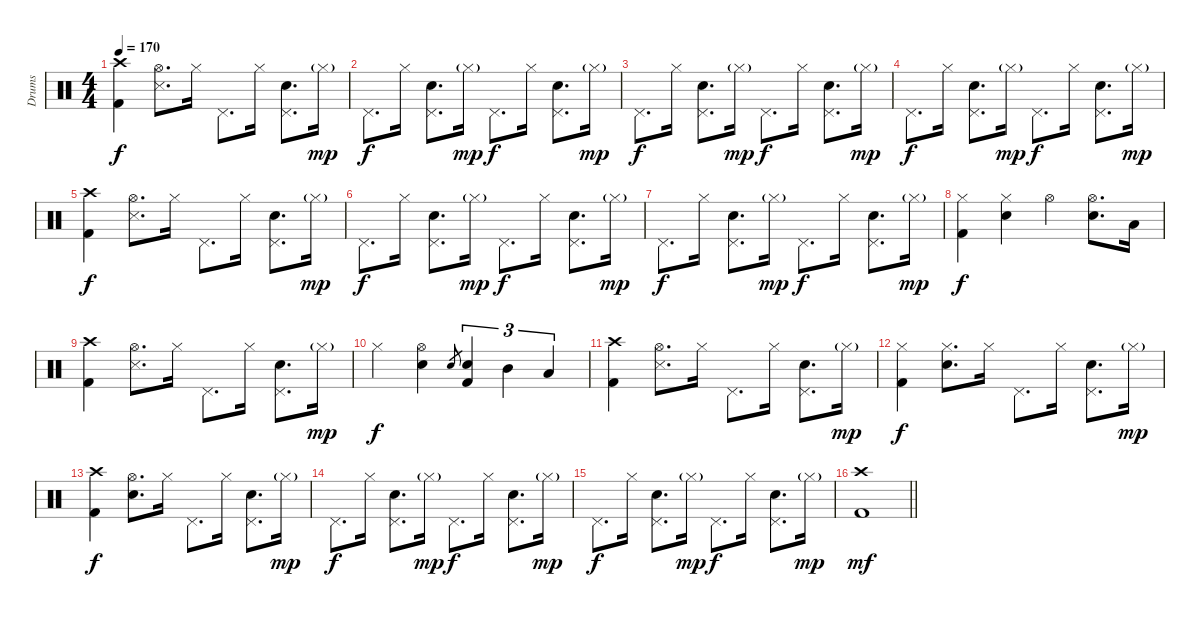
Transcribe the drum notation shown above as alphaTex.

\track ("Drums" "Drums") {instrument percussion}
\staff {score}
\articulation defaults
\ts (4 4)
\tempo 170
\clef neutral
\ks c
("Crash high (hit)" "Kick (hit) 2").4{dy f} ("Hi-Hat (open)" "Snare (side stick) 3").8{d} "Hi-Hat (closed)".16 "Pedal Hi-Hat (hit)".8{d} "Hi-Hat (closed)".16 ("Pedal Hi-Hat (hit)" "Snare (hit) 2").8{d} "Hi-Hat (closed)"{g}.16{dy mp} |
"Pedal Hi-Hat (hit)".8{d dy f} "Hi-Hat (closed)".16 ("Pedal Hi-Hat (hit)" "Snare (hit) 2").8{d} "Hi-Hat (closed)"{g}.16{dy mp} "Pedal Hi-Hat (hit)".8{d dy f} "Hi-Hat (closed)".16 ("Pedal Hi-Hat (hit)" "Snare (hit) 2").8{d} "Hi-Hat (closed)"{g}.16{dy mp} |
"Pedal Hi-Hat (hit)".8{d dy f} "Hi-Hat (closed)".16 ("Pedal Hi-Hat (hit)" "Snare (hit) 2").8{d} "Hi-Hat (closed)"{g}.16{dy mp} "Pedal Hi-Hat (hit)".8{d dy f} "Hi-Hat (closed)".16 ("Pedal Hi-Hat (hit)" "Snare (hit) 2").8{d} "Hi-Hat (closed)"{g}.16{dy mp} |
"Pedal Hi-Hat (hit)".8{d dy f} "Hi-Hat (closed)".16 ("Pedal Hi-Hat (hit)" "Snare (hit) 2").8{d} "Hi-Hat (closed)"{g}.16{dy mp} "Pedal Hi-Hat (hit)".8{d dy f} "Hi-Hat (closed)".16 ("Pedal Hi-Hat (hit)" "Snare (hit) 2").8{d} "Hi-Hat (closed)"{g}.16{dy mp} |
("Crash high (hit)" "Kick (hit) 2").4{dy f} ("Hi-Hat (open)" "Snare (side stick) 3").8{d} "Hi-Hat (closed)".16 "Pedal Hi-Hat (hit)".8{d} "Hi-Hat (closed)".16 ("Pedal Hi-Hat (hit)" "Snare (hit) 2").8{d} "Hi-Hat (closed)"{g}.16{dy mp} |
"Pedal Hi-Hat (hit)".8{d dy f} "Hi-Hat (closed)".16 ("Pedal Hi-Hat (hit)" "Snare (hit) 2").8{d} "Hi-Hat (closed)"{g}.16{dy mp} "Pedal Hi-Hat (hit)".8{d dy f} "Hi-Hat (closed)".16 ("Pedal Hi-Hat (hit)" "Snare (hit) 2").8{d} "Hi-Hat (closed)"{g}.16{dy mp} |
"Pedal Hi-Hat (hit)".8{d dy f} "Hi-Hat (closed)".16 ("Pedal Hi-Hat (hit)" "Snare (hit) 2").8{d} "Hi-Hat (closed)"{g}.16{dy mp} "Pedal Hi-Hat (hit)".8{d dy f} "Hi-Hat (closed)".16 ("Pedal Hi-Hat (hit)" "Snare (hit) 2").8{d} "Hi-Hat (closed)"{g}.16{dy mp} |
("Hi-Hat (closed)" "Kick (hit) 2").4{dy f} ("Hi-Hat (closed)" "Snare (hit) 2").4 "Hi-Hat (open)".4 ("Hi-Hat (open)" "Snare (hit) 2").8{d} "Low Tom (hit)".16 |
("Crash high (hit)" "Kick (hit) 2").4 ("Hi-Hat (open)" "Snare (side stick) 3").8{d} "Hi-Hat (closed)".16 "Pedal Hi-Hat (hit)".8{d} "Hi-Hat (closed)".16 ("Pedal Hi-Hat (hit)" "Snare (hit) 2").8{d} "Hi-Hat (closed)"{g}.16{dy mp} |
"Hi-Hat (closed)".4{dy f} ("Hi-Hat (open)" "Snare (hit) 2").4 "Snare (hit) 2".8{gr} ("Snare (hit) 2" "Kick (hit) 2").4{tu (3 2)} "Mid Tom (hit)".4{tu (3 2)} "Low Tom (hit)".4{tu (3 2)} |
("Crash high (hit)" "Kick (hit) 2").4 ("Hi-Hat (open)" "Snare (side stick) 3").8{d} "Hi-Hat (closed)".16 "Pedal Hi-Hat (hit)".8{d} "Hi-Hat (closed)".16 ("Pedal Hi-Hat (hit)" "Snare (hit) 2").8{d} "Hi-Hat (closed)"{g}.16{dy mp} |
("Hi-Hat (closed)" "Kick (hit) 2").4{dy f} ("Hi-Hat (closed)" "Snare (hit) 2").8{d} "Hi-Hat (closed)".16 "Pedal Hi-Hat (hit)".8{d} "Hi-Hat (closed)".16 ("Pedal Hi-Hat (hit)" "Snare (hit) 2").8{d} "Hi-Hat (closed)"{g}.16{dy mp} |
("Crash high (hit)" "Kick (hit) 2").4{dy f} ("Hi-Hat (open)" "Snare (hit) 2").8{d} "Hi-Hat (closed)".16 "Pedal Hi-Hat (hit)".8{d} "Hi-Hat (closed)".16 ("Pedal Hi-Hat (hit)" "Snare (hit) 2").8{d} "Hi-Hat (closed)"{g}.16{dy mp} |
"Pedal Hi-Hat (hit)".8{d dy f} "Hi-Hat (closed)".16 ("Pedal Hi-Hat (hit)" "Snare (hit) 2").8{d} "Hi-Hat (closed)"{g}.16{dy mp} "Pedal Hi-Hat (hit)".8{d dy f} "Hi-Hat (closed)".16 ("Pedal Hi-Hat (hit)" "Snare (hit) 2").8{d} "Hi-Hat (closed)"{g}.16{dy mp} |
"Pedal Hi-Hat (hit)".8{d dy f} "Hi-Hat (closed)".16 ("Pedal Hi-Hat (hit)" "Snare (hit) 2").8{d} "Hi-Hat (closed)"{g}.16{dy mp} "Pedal Hi-Hat (hit)".8{d dy f} "Hi-Hat (closed)".16 ("Pedal Hi-Hat (hit)" "Snare (hit) 2").8{d} "Hi-Hat (closed)"{g}.16{dy mp} |
\barLineRight lightlight
("Crash high (hit)" "Kick (hit) 2").1{dy mf}
